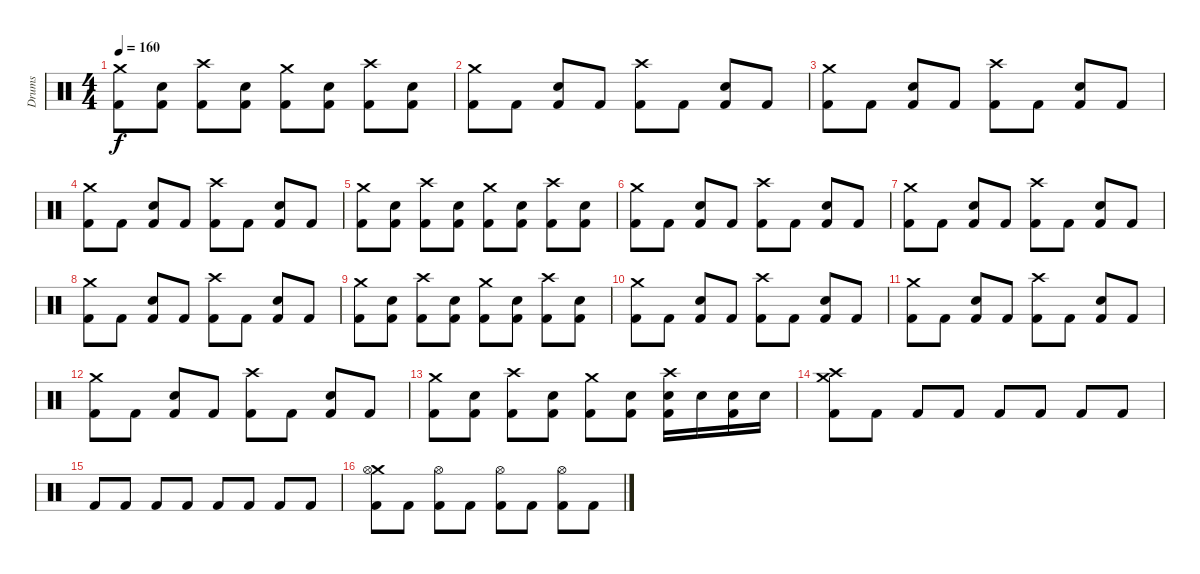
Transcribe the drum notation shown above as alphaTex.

\track ("Drums" "Drums") {instrument percussion}
\staff {score}
\articulation defaults
\ts (4 4)
\tempo 160
\clef neutral
\ks c
("Crash medium (hit)" "Kick (hit) 2").8{dy f} ("Kick (hit) 2" "Snare (hit) 2").8 ("Crash high (hit)" "Kick (hit) 2").8 ("Kick (hit) 2" "Snare (hit) 2").8 ("Crash medium (hit)" "Kick (hit) 2").8 ("Kick (hit) 2" "Snare (hit) 2").8 ("Crash high (hit)" "Kick (hit) 2").8 ("Kick (hit) 2" "Snare (hit) 2").8 |
("Crash medium (hit)" "Kick (hit) 2").8 "Kick (hit) 2".8 ("Kick (hit) 2" "Snare (hit) 2").8 "Kick (hit) 2".8 ("Crash high (hit)" "Kick (hit) 2").8 "Kick (hit) 2".8 ("Kick (hit) 2" "Snare (hit) 2").8 "Kick (hit) 2".8 |
("Crash medium (hit)" "Kick (hit) 2").8 "Kick (hit) 2".8 ("Kick (hit) 2" "Snare (hit) 2").8 "Kick (hit) 2".8 ("Crash high (hit)" "Kick (hit) 2").8 "Kick (hit) 2".8 ("Kick (hit) 2" "Snare (hit) 2").8 "Kick (hit) 2".8 |
("Crash medium (hit)" "Kick (hit) 2").8 "Kick (hit) 2".8 ("Kick (hit) 2" "Snare (hit) 2").8 "Kick (hit) 2".8 ("Crash high (hit)" "Kick (hit) 2").8 "Kick (hit) 2".8 ("Kick (hit) 2" "Snare (hit) 2").8 "Kick (hit) 2".8 |
("Crash medium (hit)" "Kick (hit) 2").8 ("Kick (hit) 2" "Snare (hit) 2").8 ("Crash high (hit)" "Kick (hit) 2").8 ("Kick (hit) 2" "Snare (hit) 2").8 ("Crash medium (hit)" "Kick (hit) 2").8 ("Kick (hit) 2" "Snare (hit) 2").8 ("Crash high (hit)" "Kick (hit) 2").8 ("Kick (hit) 2" "Snare (hit) 2").8 |
("Crash medium (hit)" "Kick (hit) 2").8 "Kick (hit) 2".8 ("Kick (hit) 2" "Snare (hit) 2").8 "Kick (hit) 2".8 ("Crash high (hit)" "Kick (hit) 2").8 "Kick (hit) 2".8 ("Kick (hit) 2" "Snare (hit) 2").8 "Kick (hit) 2".8 |
("Crash medium (hit)" "Kick (hit) 2").8 "Kick (hit) 2".8 ("Kick (hit) 2" "Snare (hit) 2").8 "Kick (hit) 2".8 ("Crash high (hit)" "Kick (hit) 2").8 "Kick (hit) 2".8 ("Kick (hit) 2" "Snare (hit) 2").8 "Kick (hit) 2".8 |
("Crash medium (hit)" "Kick (hit) 2").8 "Kick (hit) 2".8 ("Kick (hit) 2" "Snare (hit) 2").8 "Kick (hit) 2".8 ("Crash high (hit)" "Kick (hit) 2").8 "Kick (hit) 2".8 ("Kick (hit) 2" "Snare (hit) 2").8 "Kick (hit) 2".8 |
("Crash medium (hit)" "Kick (hit) 2").8 ("Kick (hit) 2" "Snare (hit) 2").8 ("Crash high (hit)" "Kick (hit) 2").8 ("Kick (hit) 2" "Snare (hit) 2").8 ("Crash medium (hit)" "Kick (hit) 2").8 ("Kick (hit) 2" "Snare (hit) 2").8 ("Crash high (hit)" "Kick (hit) 2").8 ("Kick (hit) 2" "Snare (hit) 2").8 |
("Crash medium (hit)" "Kick (hit) 2").8 "Kick (hit) 2".8 ("Kick (hit) 2" "Snare (hit) 2").8 "Kick (hit) 2".8 ("Crash high (hit)" "Kick (hit) 2").8 "Kick (hit) 2".8 ("Kick (hit) 2" "Snare (hit) 2").8 "Kick (hit) 2".8 |
("Crash medium (hit)" "Kick (hit) 2").8 "Kick (hit) 2".8 ("Kick (hit) 2" "Snare (hit) 2").8 "Kick (hit) 2".8 ("Crash high (hit)" "Kick (hit) 2").8 "Kick (hit) 2".8 ("Kick (hit) 2" "Snare (hit) 2").8 "Kick (hit) 2".8 |
("Crash medium (hit)" "Kick (hit) 2").8 "Kick (hit) 2".8 ("Kick (hit) 2" "Snare (hit) 2").8 "Kick (hit) 2".8 ("Crash high (hit)" "Kick (hit) 2").8 "Kick (hit) 2".8 ("Kick (hit) 2" "Snare (hit) 2").8 "Kick (hit) 2".8 |
("Crash medium (hit)" "Kick (hit) 2").8 ("Kick (hit) 2" "Snare (hit) 2").8 ("Crash high (hit)" "Kick (hit) 2").8 ("Kick (hit) 2" "Snare (hit) 2").8 ("Crash medium (hit)" "Kick (hit) 2").8 ("Kick (hit) 2" "Snare (hit) 2").8 ("Crash high (hit)" "Kick (hit) 2" "Snare (hit) 2").16 "Snare (hit) 2".16 ("Kick (hit) 2" "Snare (hit) 2").16 "Snare (hit) 2".16 |
("Crash medium (hit)" "Crash high (hit)" "Kick (hit) 2").8 "Kick (hit) 2".8 "Kick (hit) 2".8 "Kick (hit) 2".8 "Kick (hit) 2".8 "Kick (hit) 2".8 "Kick (hit) 2".8 "Kick (hit) 2".8 |
"Kick (hit) 2".8 "Kick (hit) 2".8 "Kick (hit) 2".8 "Kick (hit) 2".8 "Kick (hit) 2".8 "Kick (hit) 2".8 "Kick (hit) 2".8 "Kick (hit) 2".8 |
("Crash medium (hit)" "Hi-Hat (open)" "Kick (hit) 2").8 "Kick (hit) 2".8 ("Hi-Hat (open)" "Kick (hit) 2").8 "Kick (hit) 2".8 ("Hi-Hat (open)" "Kick (hit) 2").8 "Kick (hit) 2".8 ("Hi-Hat (open)" "Kick (hit) 2").8 "Kick (hit) 2".8
